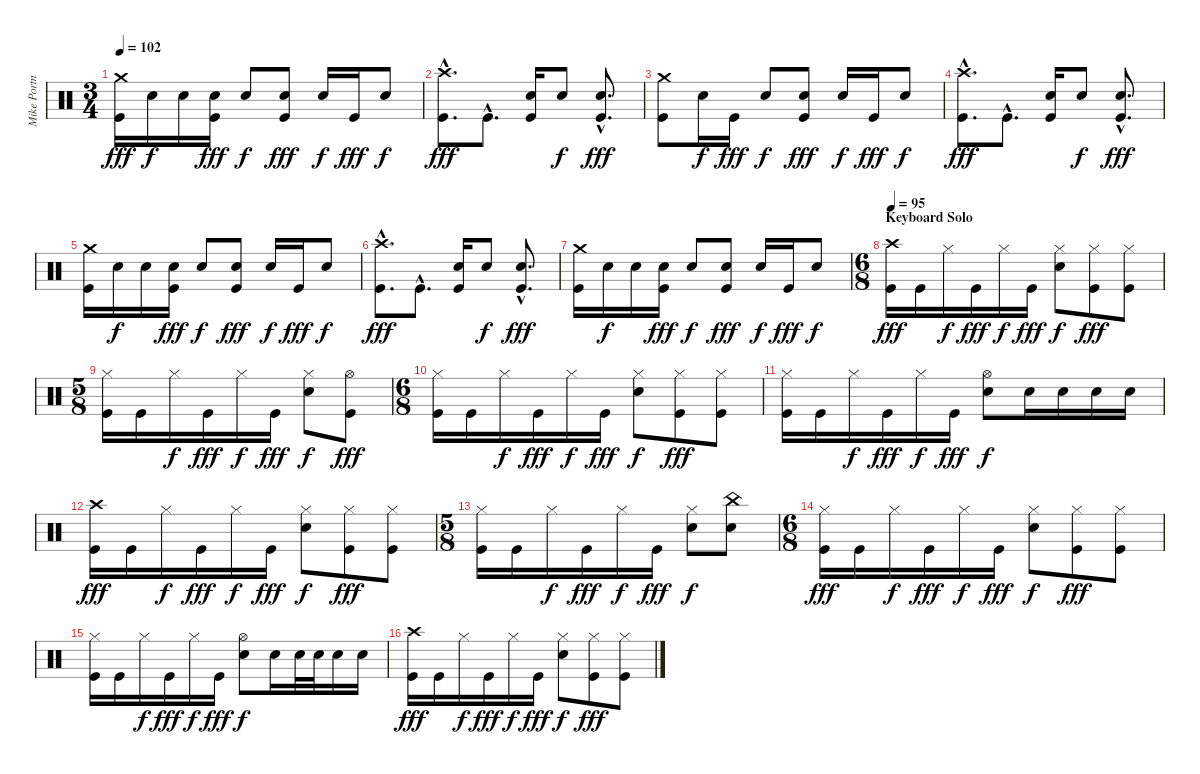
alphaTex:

\track ("Mike Portnoy" "Mike Portn") {instrument percussion}
\staff {score}
\articulation defaults
\ts (3 4)
\tempo 102
\clef neutral
\ks c
("Crash medium (hit)" "Kick (hit)").16{dy fff} "Electric Snare (hit)".16{dy f} "Electric Snare (hit)".16 ("Electric Snare (hit)" "Kick (hit)").16{dy fff} "Electric Snare (hit)".8{dy f} ("Electric Snare (hit)" "Kick (hit)").8{dy fff} "Electric Snare (hit)".16{dy f} "Kick (hit)".16{dy fff} "Electric Snare (hit)".8{dy f} |
("Crash high (hit)"{hac} "Kick (hit)"{hac}).8{d dy fff} "Kick (hit)"{hac}.8{d} ("Electric Snare (hit)" "Kick (hit)").16 "Electric Snare (hit)".8{dy f} ("Electric Snare (hit)"{hac} "Kick (hit)"{hac}).8{d dy fff} |
("Crash medium (hit)" "Kick (hit)").8 "Electric Snare (hit)".16{dy f} "Kick (hit)".16{dy fff} "Electric Snare (hit)".8{dy f} ("Electric Snare (hit)" "Kick (hit)").8{dy fff} "Electric Snare (hit)".16{dy f} "Kick (hit)".16{dy fff} "Electric Snare (hit)".8{dy f} |
("Crash high (hit)"{hac} "Kick (hit)"{hac}).8{d dy fff} "Kick (hit)"{hac}.8{d} ("Electric Snare (hit)" "Kick (hit)").16 "Electric Snare (hit)".8{dy f} ("Electric Snare (hit)"{hac} "Kick (hit)"{hac}).8{d dy fff} |
("Crash medium (hit)" "Kick (hit)").16 "Electric Snare (hit)".16{dy f} "Electric Snare (hit)".16 ("Electric Snare (hit)" "Kick (hit)").16{dy fff} "Electric Snare (hit)".8{dy f} ("Electric Snare (hit)" "Kick (hit)").8{dy fff} "Electric Snare (hit)".16{dy f} "Kick (hit)".16{dy fff} "Electric Snare (hit)".8{dy f} |
("Crash high (hit)"{hac} "Kick (hit)"{hac}).8{d dy fff} "Kick (hit)"{hac}.8{d} ("Electric Snare (hit)" "Kick (hit)").16 "Electric Snare (hit)".8{dy f} ("Electric Snare (hit)"{hac} "Kick (hit)"{hac}).8{d dy fff} |
("Crash medium (hit)" "Kick (hit)").16 "Electric Snare (hit)".16{dy f} "Electric Snare (hit)".16 ("Electric Snare (hit)" "Kick (hit)").16{dy fff} "Electric Snare (hit)".8{dy f} ("Electric Snare (hit)" "Kick (hit)").8{dy fff} "Electric Snare (hit)".16{dy f} "Kick (hit)".16{dy fff} "Electric Snare (hit)".8{dy f} |
\ts (6 8)
\section ("" "Keyboard Solo")
\tempo 95
("Crash high (hit)" "Kick (hit)").16{dy fff} "Kick (hit)".16 "Hi-Hat (closed)".16{dy f} "Kick (hit)".16{dy fff} "Hi-Hat (closed)".16{dy f} "Kick (hit)".16{dy fff} ("Hi-Hat (closed)" "Electric Snare (hit)").8{dy f} ("Hi-Hat (closed)" "Kick (hit)").8{dy fff} ("Hi-Hat (closed)" "Kick (hit)").8 |
\ts (5 8)
("Hi-Hat (closed)" "Kick (hit)").16 "Kick (hit)".16 "Hi-Hat (closed)".16{dy f} "Kick (hit)".16{dy fff} "Hi-Hat (closed)".16{dy f} "Kick (hit)".16{dy fff} ("Hi-Hat (closed)" "Electric Snare (hit)").8{dy f} ("Hi-Hat (open)" "Kick (hit)").8{dy fff} |
\ts (6 8)
("Hi-Hat (closed)" "Kick (hit)").16 "Kick (hit)".16 "Hi-Hat (closed)".16{dy f} "Kick (hit)".16{dy fff} "Hi-Hat (closed)".16{dy f} "Kick (hit)".16{dy fff} ("Hi-Hat (closed)" "Electric Snare (hit)").8{dy f} ("Hi-Hat (closed)" "Kick (hit)").8{dy fff} ("Hi-Hat (closed)" "Kick (hit)").8 |
("Hi-Hat (closed)" "Kick (hit)").16 "Kick (hit)".16 "Hi-Hat (closed)".16{dy f} "Kick (hit)".16{dy fff} "Hi-Hat (closed)".16{dy f} "Kick (hit)".16{dy fff} ("Hi-Hat (open)" "Electric Snare (hit)").8{dy f} "Electric Snare (hit)".16 "Electric Snare (hit)".16 "Electric Snare (hit)".16 "Electric Snare (hit)".16 |
("Crash high (hit)" "Kick (hit)").16{dy fff} "Kick (hit)".16 "Hi-Hat (closed)".16{dy f} "Kick (hit)".16{dy fff} "Hi-Hat (closed)".16{dy f} "Kick (hit)".16{dy fff} ("Hi-Hat (closed)" "Electric Snare (hit)").8{dy f} ("Hi-Hat (closed)" "Kick (hit)").8{dy fff} ("Hi-Hat (closed)" "Kick (hit)").8 |
\ts (5 8)
("Hi-Hat (closed)" "Kick (hit)").16 "Kick (hit)".16 "Hi-Hat (closed)".16{dy f} "Kick (hit)".16{dy fff} "Hi-Hat (closed)".16{dy f} "Kick (hit)".16{dy fff} ("Hi-Hat (closed)" "Electric Snare (hit)").8{dy f} ("China (hit)" "Electric Snare (hit)").8 |
\ts (6 8)
("Hi-Hat (closed)" "Kick (hit)").16{dy fff} "Kick (hit)".16 "Hi-Hat (closed)".16{dy f} "Kick (hit)".16{dy fff} "Hi-Hat (closed)".16{dy f} "Kick (hit)".16{dy fff} ("Hi-Hat (closed)" "Electric Snare (hit)").8{dy f} ("Hi-Hat (closed)" "Kick (hit)").8{dy fff} ("Hi-Hat (closed)" "Kick (hit)").8 |
("Hi-Hat (closed)" "Kick (hit)").16 "Kick (hit)".16 "Hi-Hat (closed)".16{dy f} "Kick (hit)".16{dy fff} "Hi-Hat (closed)".16{dy f} "Kick (hit)".16{dy fff} ("Hi-Hat (open)" "Electric Snare (hit)").8{dy f} "Electric Snare (hit)".16 "Electric Snare (hit)".32 "Electric Snare (hit)".32 "Electric Snare (hit)".16 "Electric Snare (hit)".16 |
("Crash high (hit)" "Kick (hit)").16{dy fff} "Kick (hit)".16 "Hi-Hat (closed)".16{dy f} "Kick (hit)".16{dy fff} "Hi-Hat (closed)".16{dy f} "Kick (hit)".16{dy fff} ("Hi-Hat (closed)" "Electric Snare (hit)").8{dy f} ("Hi-Hat (closed)" "Kick (hit)").8{dy fff} ("Hi-Hat (closed)" "Kick (hit)").8
